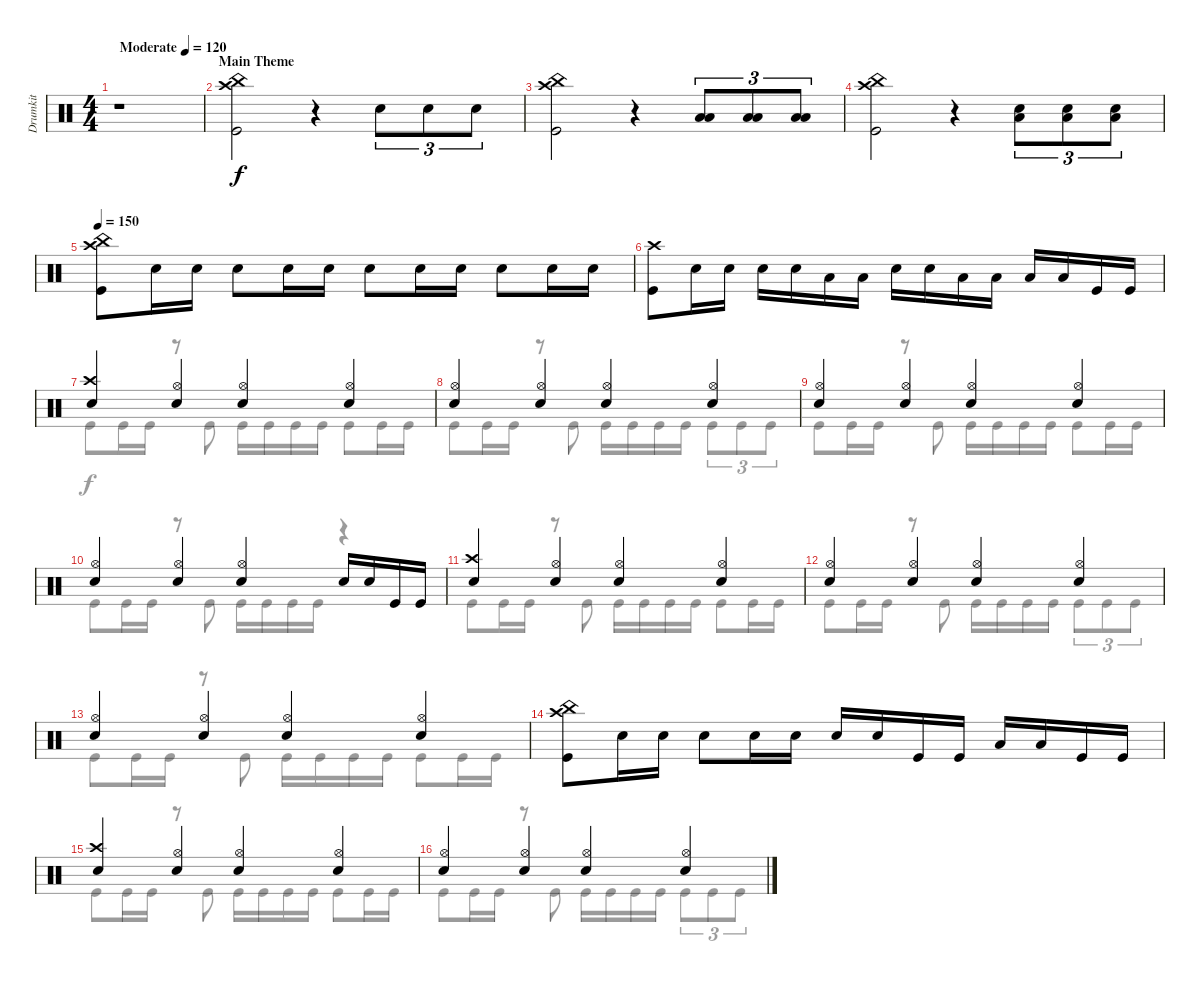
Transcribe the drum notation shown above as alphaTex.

\track ("Drumkit" "Drumkit") {instrument percussion}
\staff {score}
\articulation defaults
\voice
\ts (4 4)
\tempo (120 "Moderate")
\clef neutral
\ks c
r.1{dy f} |
\section ("" "Main Theme")
("Kick (hit)" "China (hit)" "Crash high (hit)").2 r.4 "Snare (hit) 2".8{tu (3 2)} "Snare (hit) 2".8{tu (3 2)} "Snare (hit) 2".8{tu (3 2)} |
("Kick (hit)" "China (hit)" "Crash high (hit)").2 r.4 ("Low Tom (hit)" "Low Floor Tom (hit)").8{tu (3 2)} ("Low Tom (hit)" "Low Floor Tom (hit)").8{tu (3 2)} ("Low Tom (hit)" "Low Floor Tom (hit)").8{tu (3 2)} |
("Kick (hit)" "China (hit)" "Crash high (hit)").2 r.4 ("Snare (hit) 2" "Low Floor Tom (hit)").8{tu (3 2)} ("Snare (hit) 2" "Low Floor Tom (hit)").8{tu (3 2)} ("Snare (hit) 2" "Low Floor Tom (hit)").8{tu (3 2)} |
\tempo 150
("Kick (hit)" "China (hit)" "Crash high (hit)").8 "Snare (hit) 2".16 "Snare (hit) 2".16 "Snare (hit) 2".8 "Snare (hit) 2".16 "Snare (hit) 2".16 "Snare (hit) 2".8 "Snare (hit) 2".16 "Snare (hit) 2".16 "Snare (hit) 2".8 "Snare (hit) 2".16 "Snare (hit) 2".16 |
("Kick (hit)" "Crash high (hit)").8 "Snare (hit) 2".16 "Snare (hit) 2".16 "Snare (hit) 2".16 "Snare (hit) 2".16 "Low Tom (hit)".16 "Low Tom (hit)".16 "Snare (hit) 2".16 "Snare (hit) 2".16 "Low Tom (hit)".16 "Low Tom (hit)".16 "Low Floor Tom (hit)".16 "Low Floor Tom (hit)".16 "Kick (hit)".16 "Kick (hit)".16 |
("Snare (hit) 2" "Crash high (hit)").4 ("Snare (hit) 2" "Hi-Hat (open)").4 ("Snare (hit) 2" "Hi-Hat (open)").4 ("Snare (hit) 2" "Hi-Hat (open)").4 |
("Snare (hit) 2" "Hi-Hat (open)").4 ("Snare (hit) 2" "Hi-Hat (open)").4 ("Snare (hit) 2" "Hi-Hat (open)").4 ("Snare (hit) 2" "Hi-Hat (open)").4 |
("Snare (hit) 2" "Hi-Hat (open)").4 ("Snare (hit) 2" "Hi-Hat (open)").4 ("Snare (hit) 2" "Hi-Hat (open)").4 ("Snare (hit) 2" "Hi-Hat (open)").4 |
("Snare (hit) 2" "Hi-Hat (open)").4 ("Snare (hit) 2" "Hi-Hat (open)").4 ("Snare (hit) 2" "Hi-Hat (open)").4 "Snare (hit) 2".16 "Snare (hit) 2".16 "Kick (hit)".16 "Kick (hit)".16 |
("Snare (hit) 2" "Crash high (hit)").4 ("Snare (hit) 2" "Hi-Hat (open)").4 ("Snare (hit) 2" "Hi-Hat (open)").4 ("Snare (hit) 2" "Hi-Hat (open)").4 |
("Snare (hit) 2" "Hi-Hat (open)").4 ("Snare (hit) 2" "Hi-Hat (open)").4 ("Snare (hit) 2" "Hi-Hat (open)").4 ("Snare (hit) 2" "Hi-Hat (open)").4 |
("Snare (hit) 2" "Hi-Hat (open)").4 ("Snare (hit) 2" "Hi-Hat (open)").4 ("Snare (hit) 2" "Hi-Hat (open)").4 ("Snare (hit) 2" "Hi-Hat (open)").4 |
("Kick (hit)" "China (hit)" "Crash high (hit)").8 "Snare (hit) 2".16 "Snare (hit) 2".16 "Snare (hit) 2".8 "Snare (hit) 2".16 "Snare (hit) 2".16 "Snare (hit) 2".16 "Snare (hit) 2".16 "Kick (hit)".16 "Kick (hit)".16 "Low Tom (hit)".16 "Low Tom (hit)".16 "Kick (hit)".16 "Kick (hit)".16 |
("Snare (hit) 2" "Crash high (hit)").4 ("Snare (hit) 2" "Hi-Hat (open)").4 ("Snare (hit) 2" "Hi-Hat (open)").4 ("Snare (hit) 2" "Hi-Hat (open)").4 |
("Snare (hit) 2" "Hi-Hat (open)").4 ("Snare (hit) 2" "Hi-Hat (open)").4 ("Snare (hit) 2" "Hi-Hat (open)").4 ("Snare (hit) 2" "Hi-Hat (open)").4
\voice
\clef neutral
\ottava regular
\simile none
\ks c
|
|
|
|
|
|
"Kick (hit)".8 "Kick (hit)".16 "Kick (hit)".16 r.8 "Kick (hit)".8 "Kick (hit)".16 "Kick (hit)".16 "Kick (hit)".16 "Kick (hit)".16 "Kick (hit)".8 "Kick (hit)".16 "Kick (hit)".16 |
"Kick (hit)".8 "Kick (hit)".16 "Kick (hit)".16 r.8 "Kick (hit)".8 "Kick (hit)".16 "Kick (hit)".16 "Kick (hit)".16 "Kick (hit)".16 "Kick (hit)".8{tu (3 2)} "Kick (hit)".8{tu (3 2)} "Kick (hit)".8{tu (3 2)} |
"Kick (hit)".8 "Kick (hit)".16 "Kick (hit)".16 r.8 "Kick (hit)".8 "Kick (hit)".16 "Kick (hit)".16 "Kick (hit)".16 "Kick (hit)".16 "Kick (hit)".8 "Kick (hit)".16 "Kick (hit)".16 |
"Kick (hit)".8 "Kick (hit)".16 "Kick (hit)".16 r.8 "Kick (hit)".8 "Kick (hit)".16 "Kick (hit)".16 "Kick (hit)".16 "Kick (hit)".16 r.4 |
"Kick (hit)".8 "Kick (hit)".16 "Kick (hit)".16 r.8 "Kick (hit)".8 "Kick (hit)".16 "Kick (hit)".16 "Kick (hit)".16 "Kick (hit)".16 "Kick (hit)".8 "Kick (hit)".16 "Kick (hit)".16 |
"Kick (hit)".8 "Kick (hit)".16 "Kick (hit)".16 r.8 "Kick (hit)".8 "Kick (hit)".16 "Kick (hit)".16 "Kick (hit)".16 "Kick (hit)".16 "Kick (hit)".8{tu (3 2)} "Kick (hit)".8{tu (3 2)} "Kick (hit)".8{tu (3 2)} |
"Kick (hit)".8 "Kick (hit)".16 "Kick (hit)".16 r.8 "Kick (hit)".8 "Kick (hit)".16 "Kick (hit)".16 "Kick (hit)".16 "Kick (hit)".16 "Kick (hit)".8 "Kick (hit)".16 "Kick (hit)".16 |
|
"Kick (hit)".8 "Kick (hit)".16 "Kick (hit)".16 r.8 "Kick (hit)".8 "Kick (hit)".16 "Kick (hit)".16 "Kick (hit)".16 "Kick (hit)".16 "Kick (hit)".8 "Kick (hit)".16 "Kick (hit)".16 |
"Kick (hit)".8 "Kick (hit)".16 "Kick (hit)".16 r.8 "Kick (hit)".8 "Kick (hit)".16 "Kick (hit)".16 "Kick (hit)".16 "Kick (hit)".16 "Kick (hit)".8{tu (3 2)} "Kick (hit)".8{tu (3 2)} "Kick (hit)".8{tu (3 2)}
